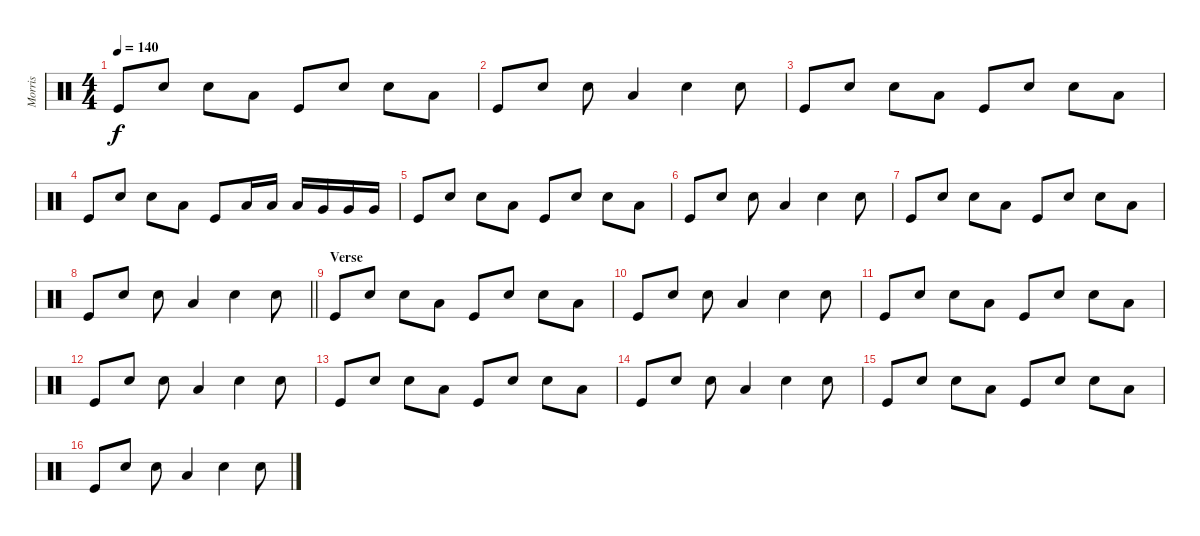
\track ("Morris" "Morris") {instrument percussion}
\staff {score}
\articulation defaults
\ts (4 4)
\tempo 140
\clef neutral
\ks c "Kick (hit)".8{dy f} "Electric Snare (hit)".8 "Electric Snare (hit)".8 "Low Tom (hit)".8 "Kick (hit)".8 "Electric Snare (hit)".8 "Electric Snare (hit)".8 "Low Tom (hit)".8
|
"Kick (hit)".8 "Electric Snare (hit)".8 "Electric Snare (hit)".8 "Low Tom (hit)".4 "Electric Snare (hit)".4 "Electric Snare (hit)".8 |
"Kick (hit)".8 "Electric Snare (hit)".8 "Electric Snare (hit)".8 "Low Tom (hit)".8 "Kick (hit)".8 "Electric Snare (hit)".8 "Electric Snare (hit)".8 "Low Tom (hit)".8 |
"Kick (hit)".8 "Electric Snare (hit)".8 "Electric Snare (hit)".8 "Low Tom (hit)".8 "Kick (hit)".8 "Low Tom (hit)".16 "Low Tom (hit)".16 "Low Tom (hit)".16 "Very Low Tom (hit)".16 "Very Low Tom (hit)".16 "Very Low Tom (hit)".16 |
"Kick (hit)".8 "Electric Snare (hit)".8 "Electric Snare (hit)".8 "Low Tom (hit)".8 "Kick (hit)".8 "Electric Snare (hit)".8 "Electric Snare (hit)".8 "Low Tom (hit)".8 |
"Kick (hit)".8 "Electric Snare (hit)".8 "Electric Snare (hit)".8 "Low Tom (hit)".4 "Electric Snare (hit)".4 "Electric Snare (hit)".8 |
"Kick (hit)".8 "Electric Snare (hit)".8 "Electric Snare (hit)".8 "Low Tom (hit)".8 "Kick (hit)".8 "Electric Snare (hit)".8 "Electric Snare (hit)".8 "Low Tom (hit)".8 |
\barLineRight lightlight "Kick (hit)".8 "Electric Snare (hit)".8 "Electric Snare (hit)".8 "Low Tom (hit)".4 "Electric Snare (hit)".4 "Electric Snare (hit)".8
|
\section ("" "Verse")
"Kick (hit)".8 "Electric Snare (hit)".8 "Electric Snare (hit)".8 "Low Tom (hit)".8 "Kick (hit)".8 "Electric Snare (hit)".8 "Electric Snare (hit)".8 "Low Tom (hit)".8 |
"Kick (hit)".8 "Electric Snare (hit)".8 "Electric Snare (hit)".8 "Low Tom (hit)".4 "Electric Snare (hit)".4 "Electric Snare (hit)".8 |
"Kick (hit)".8 "Electric Snare (hit)".8 "Electric Snare (hit)".8 "Low Tom (hit)".8 "Kick (hit)".8 "Electric Snare (hit)".8 "Electric Snare (hit)".8 "Low Tom (hit)".8 |
"Kick (hit)".8 "Electric Snare (hit)".8 "Electric Snare (hit)".8 "Low Tom (hit)".4 "Electric Snare (hit)".4 "Electric Snare (hit)".8 |
"Kick (hit)".8 "Electric Snare (hit)".8 "Electric Snare (hit)".8 "Low Tom (hit)".8 "Kick (hit)".8 "Electric Snare (hit)".8 "Electric Snare (hit)".8 "Low Tom (hit)".8 |
"Kick (hit)".8 "Electric Snare (hit)".8 "Electric Snare (hit)".8 "Low Tom (hit)".4 "Electric Snare (hit)".4 "Electric Snare (hit)".8 |
"Kick (hit)".8 "Electric Snare (hit)".8 "Electric Snare (hit)".8 "Low Tom (hit)".8 "Kick (hit)".8 "Electric Snare (hit)".8 "Electric Snare (hit)".8 "Low Tom (hit)".8 |
"Kick (hit)".8 "Electric Snare (hit)".8 "Electric Snare (hit)".8 "Low Tom (hit)".4 "Electric Snare (hit)".4 "Electric Snare (hit)".8
